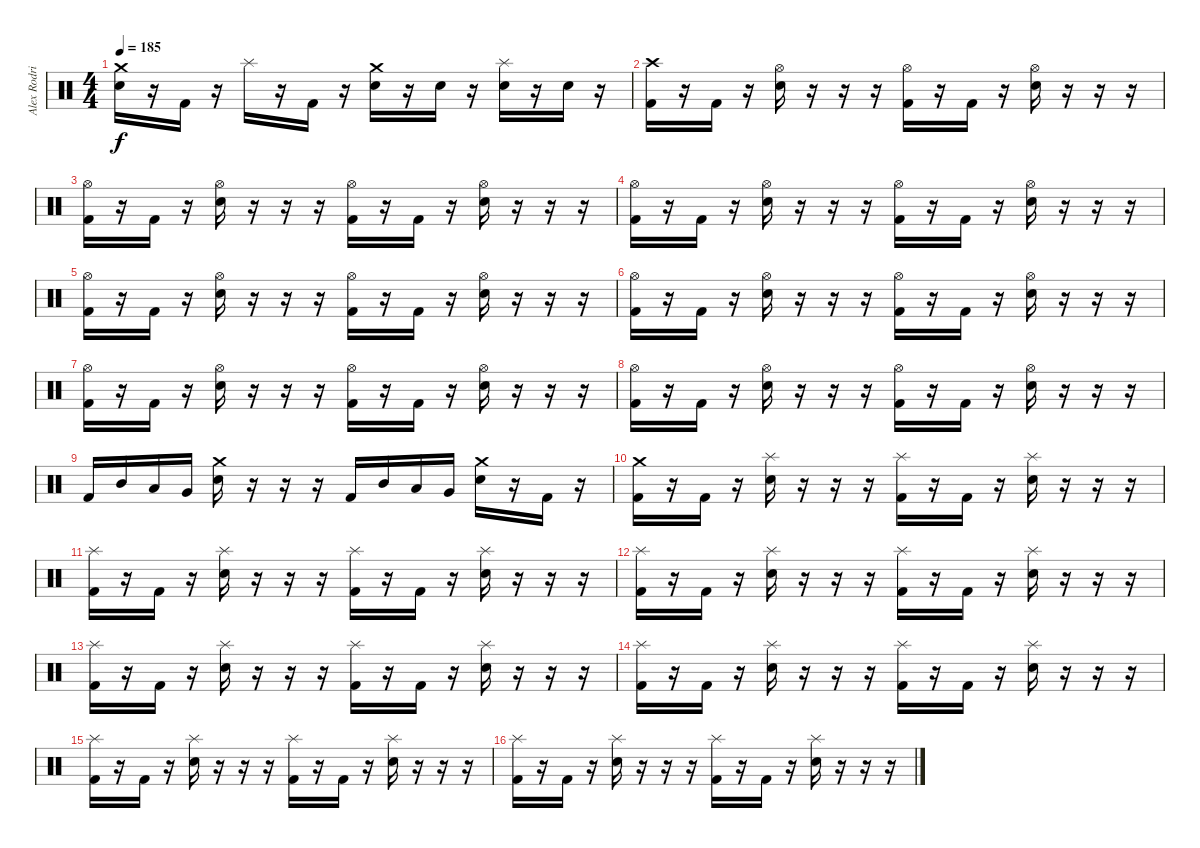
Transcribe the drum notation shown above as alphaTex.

\track ("Alex Rodriguez" "Alex Rodri") {instrument percussion}
\staff {score}
\articulation defaults
\ts (4 4)
\tempo 185
\clef neutral
\ks c
("Crash medium (hit)" "Electric Snare (hit)").16{dy f} r.16 "Kick (hit) 2".16 r.16 "Splash (hit)".16 r.16 "Kick (hit) 2".16 r.16 ("Crash medium (hit)" "Electric Snare (hit)").16 r.16 "Electric Snare (hit)".16 r.16 ("Splash (hit)" "Electric Snare (hit)").16 r.16 "Electric Snare (hit)".16 r.16 |
("Crash high (hit)" "Kick (hit) 2").16 r.16 "Kick (hit) 2".16 r.16 ("Hi-Hat (open)" "Electric Snare (hit)").16 r.16 r.16 r.16 ("Hi-Hat (open)" "Kick (hit) 2").16 r.16 "Kick (hit) 2".16 r.16 ("Hi-Hat (open)" "Electric Snare (hit)").16 r.16 r.16 r.16 |
("Hi-Hat (open)" "Kick (hit) 2").16 r.16 "Kick (hit) 2".16 r.16 ("Hi-Hat (open)" "Electric Snare (hit)").16 r.16 r.16 r.16 ("Hi-Hat (open)" "Kick (hit) 2").16 r.16 "Kick (hit) 2".16 r.16 ("Hi-Hat (open)" "Electric Snare (hit)").16 r.16 r.16 r.16 |
("Hi-Hat (open)" "Kick (hit) 2").16 r.16 "Kick (hit) 2".16 r.16 ("Hi-Hat (open)" "Electric Snare (hit)").16 r.16 r.16 r.16 ("Hi-Hat (open)" "Kick (hit) 2").16 r.16 "Kick (hit) 2".16 r.16 ("Hi-Hat (open)" "Electric Snare (hit)").16 r.16 r.16 r.16 |
("Hi-Hat (open)" "Kick (hit) 2").16 r.16 "Kick (hit) 2".16 r.16 ("Hi-Hat (open)" "Electric Snare (hit)").16 r.16 r.16 r.16 ("Hi-Hat (open)" "Kick (hit) 2").16 r.16 "Kick (hit) 2".16 r.16 ("Hi-Hat (open)" "Electric Snare (hit)").16 r.16 r.16 r.16 |
("Hi-Hat (open)" "Kick (hit) 2").16 r.16 "Kick (hit) 2".16 r.16 ("Hi-Hat (open)" "Electric Snare (hit)").16 r.16 r.16 r.16 ("Hi-Hat (open)" "Kick (hit) 2").16 r.16 "Kick (hit) 2".16 r.16 ("Hi-Hat (open)" "Electric Snare (hit)").16 r.16 r.16 r.16 |
("Hi-Hat (open)" "Kick (hit) 2").16 r.16 "Kick (hit) 2".16 r.16 ("Hi-Hat (open)" "Electric Snare (hit)").16 r.16 r.16 r.16 ("Hi-Hat (open)" "Kick (hit) 2").16 r.16 "Kick (hit) 2".16 r.16 ("Hi-Hat (open)" "Electric Snare (hit)").16 r.16 r.16 r.16 |
("Hi-Hat (open)" "Kick (hit) 2").16 r.16 "Kick (hit) 2".16 r.16 ("Hi-Hat (open)" "Electric Snare (hit)").16 r.16 r.16 r.16 ("Hi-Hat (open)" "Kick (hit) 2").16 r.16 "Kick (hit) 2".16 r.16 ("Hi-Hat (open)" "Electric Snare (hit)").16 r.16 r.16 r.16 |
"Kick (hit) 2".16 "Mid Tom (hit)".16 "Low Tom (hit)".16 "Very Low Tom (hit)".16 ("Crash medium (hit)" "Electric Snare (hit)").16 r.16 r.16 r.16 "Kick (hit) 2".16 "Mid Tom (hit)".16 "Low Tom (hit)".16 "Very Low Tom (hit)".16 ("Crash medium (hit)" "Electric Snare (hit)").16 r.16 "Kick (hit) 2".16 r.16 |
("Crash medium (hit)" "Kick (hit) 2").16 r.16 "Kick (hit) 2".16 r.16 ("Splash (hit)" "Electric Snare (hit)").16 r.16 r.16 r.16 ("Splash (hit)" "Kick (hit) 2").16 r.16 "Kick (hit) 2".16 r.16 ("Splash (hit)" "Electric Snare (hit)").16 r.16 r.16 r.16 |
("Splash (hit)" "Kick (hit) 2").16 r.16 "Kick (hit) 2".16 r.16 ("Splash (hit)" "Electric Snare (hit)").16 r.16 r.16 r.16 ("Splash (hit)" "Kick (hit) 2").16 r.16 "Kick (hit) 2".16 r.16 ("Splash (hit)" "Electric Snare (hit)").16 r.16 r.16 r.16 |
("Splash (hit)" "Kick (hit) 2").16 r.16 "Kick (hit) 2".16 r.16 ("Splash (hit)" "Electric Snare (hit)").16 r.16 r.16 r.16 ("Splash (hit)" "Kick (hit) 2").16 r.16 "Kick (hit) 2".16 r.16 ("Splash (hit)" "Electric Snare (hit)").16 r.16 r.16 r.16 |
("Splash (hit)" "Kick (hit) 2").16 r.16 "Kick (hit) 2".16 r.16 ("Splash (hit)" "Electric Snare (hit)").16 r.16 r.16 r.16 ("Splash (hit)" "Kick (hit) 2").16 r.16 "Kick (hit) 2".16 r.16 ("Splash (hit)" "Electric Snare (hit)").16 r.16 r.16 r.16 |
("Splash (hit)" "Kick (hit) 2").16 r.16 "Kick (hit) 2".16 r.16 ("Splash (hit)" "Electric Snare (hit)").16 r.16 r.16 r.16 ("Splash (hit)" "Kick (hit) 2").16 r.16 "Kick (hit) 2".16 r.16 ("Splash (hit)" "Electric Snare (hit)").16 r.16 r.16 r.16 |
("Splash (hit)" "Kick (hit) 2").16 r.16 "Kick (hit) 2".16 r.16 ("Splash (hit)" "Electric Snare (hit)").16 r.16 r.16 r.16 ("Splash (hit)" "Kick (hit) 2").16 r.16 "Kick (hit) 2".16 r.16 ("Splash (hit)" "Electric Snare (hit)").16 r.16 r.16 r.16 |
("Splash (hit)" "Kick (hit) 2").16 r.16 "Kick (hit) 2".16 r.16 ("Splash (hit)" "Electric Snare (hit)").16 r.16 r.16 r.16 ("Splash (hit)" "Kick (hit) 2").16 r.16 "Kick (hit) 2".16 r.16 ("Splash (hit)" "Electric Snare (hit)").16 r.16 r.16 r.16
